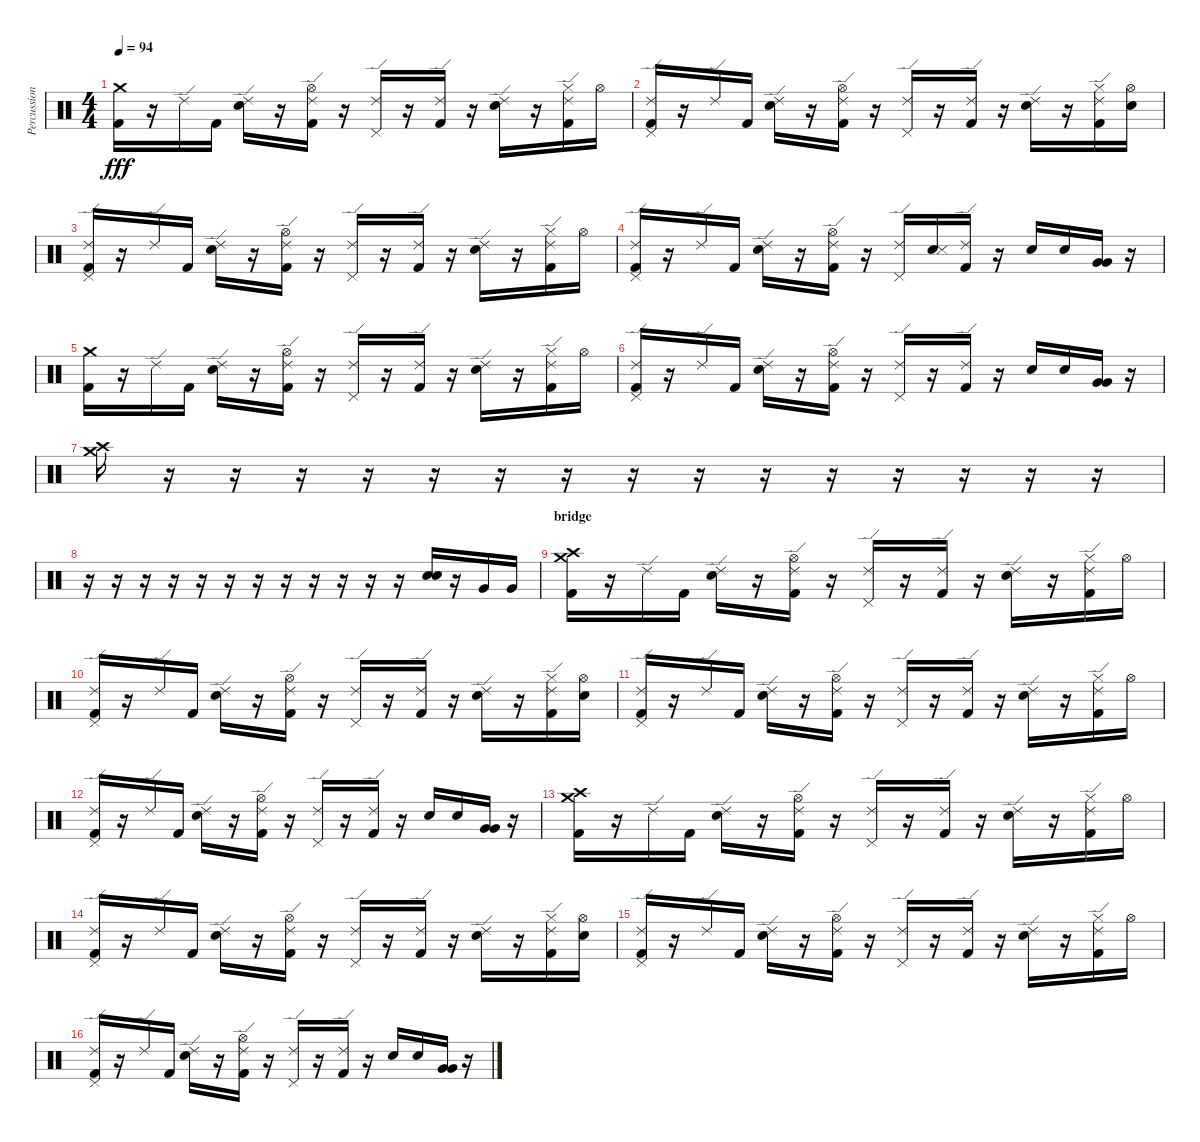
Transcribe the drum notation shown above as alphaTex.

\track ("Percussion" "Percussion") {instrument percussion}
\staff {score}
\articulation defaults
\ts (4 4)
\tempo 94
\clef neutral
\ks c
("Crash medium (hit)" "Kick (hit) 2").16{dy fff} r.16 "Ride (edge) 2".16 "Kick (hit) 2".16 ("Ride (edge) 2" "Electric Snare (hit)").16 r.16 ("Ride (edge) 2" "Hi-Hat (open)" "Kick (hit) 2").16 r.16 ("Ride (edge) 2" "Pedal Hi-Hat (hit)").16 r.16 ("Ride (edge) 2" "Kick (hit) 2").16 r.16 ("Ride (edge) 2" "Electric Snare (hit)").16 r.16 ("Ride (edge) 2" "Hi-Hat (closed)" "Kick (hit) 2").16 "Hi-Hat (open)".16 |
("Ride (edge) 2" "Pedal Hi-Hat (hit)" "Kick (hit) 2").16 r.16 "Ride (edge) 2".16 "Kick (hit) 2".16 ("Ride (edge) 2" "Electric Snare (hit)").16 r.16 ("Ride (edge) 2" "Hi-Hat (open)" "Kick (hit) 2").16 r.16 ("Ride (edge) 2" "Pedal Hi-Hat (hit)").16 r.16 ("Ride (edge) 2" "Kick (hit) 2").16 r.16 ("Ride (edge) 2" "Electric Snare (hit)").16 r.16 ("Ride (edge) 2" "Hi-Hat (closed)" "Kick (hit) 2").16 ("Hi-Hat (open)" "Electric Snare (hit)").16 |
("Ride (edge) 2" "Pedal Hi-Hat (hit)" "Kick (hit) 2").16 r.16 "Ride (edge) 2".16 "Kick (hit) 2".16 ("Ride (edge) 2" "Electric Snare (hit)").16 r.16 ("Ride (edge) 2" "Hi-Hat (open)" "Kick (hit) 2").16 r.16 ("Ride (edge) 2" "Pedal Hi-Hat (hit)").16 r.16 ("Ride (edge) 2" "Kick (hit) 2").16 r.16 ("Ride (edge) 2" "Electric Snare (hit)").16 r.16 ("Ride (edge) 2" "Hi-Hat (closed)" "Kick (hit) 2").16 "Hi-Hat (open)".16 |
("Ride (edge) 2" "Pedal Hi-Hat (hit)" "Kick (hit) 2").16 r.16 "Ride (edge) 2".16 "Kick (hit) 2".16 ("Ride (edge) 2" "Electric Snare (hit)").16 r.16 ("Ride (edge) 2" "Hi-Hat (open)" "Kick (hit) 2").16 r.16 ("Ride (edge) 2" "Pedal Hi-Hat (hit)").16 ("Electric Snare (hit)" "Snare (side stick) 3").16 ("Ride (edge) 2" "Kick (hit) 2").16 r.16 "Electric Snare (hit)".16 "Electric Snare (hit)".16 ("Very Low Tom (hit)" "Very Low Tom (hit)").16 r.16 |
("Crash medium (hit)" "Kick (hit) 2").16 r.16 "Ride (edge) 2".16 "Kick (hit) 2".16 ("Ride (edge) 2" "Electric Snare (hit)").16 r.16 ("Ride (edge) 2" "Hi-Hat (open)" "Kick (hit) 2").16 r.16 ("Ride (edge) 2" "Pedal Hi-Hat (hit)").16 r.16 ("Ride (edge) 2" "Kick (hit) 2").16 r.16 ("Ride (edge) 2" "Electric Snare (hit)").16 r.16 ("Ride (edge) 2" "Hi-Hat (closed)" "Kick (hit) 2").16 "Hi-Hat (open)".16 |
("Ride (edge) 2" "Pedal Hi-Hat (hit)" "Kick (hit) 2").16 r.16 "Ride (edge) 2".16 "Kick (hit) 2".16 ("Ride (edge) 2" "Electric Snare (hit)").16 r.16 ("Ride (edge) 2" "Hi-Hat (open)" "Kick (hit) 2").16 r.16 ("Ride (edge) 2" "Pedal Hi-Hat (hit)").16 r.16 ("Ride (edge) 2" "Kick (hit) 2").16 r.16 "Electric Snare (hit)".16 "Electric Snare (hit)".16 ("Very Low Tom (hit)" "Very Low Tom (hit)").16 r.16 |
("Crash high (hit)" "Crash medium (hit)").16 r.16 r.16 r.16 r.16 r.16 r.16 r.16 r.16 r.16 r.16 r.16 r.16 r.16 r.16 r.16 |
r.16 r.16 r.16 r.16 r.16 r.16 r.16 r.16 r.16 r.16 r.16 r.16 ("Electric Snare (hit)" "Electric Snare (hit)").16 r.16 "Very Low Tom (hit)".16 "Very Low Tom (hit)".16 |
\section ("" "bridge")
("Crash medium (hit)" "Crash high (hit)" "Kick (hit) 2").16 r.16 "Ride (edge) 2".16 "Kick (hit) 2".16 ("Ride (edge) 2" "Electric Snare (hit)").16 r.16 ("Ride (edge) 2" "Hi-Hat (open)" "Kick (hit) 2").16 r.16 ("Ride (edge) 2" "Pedal Hi-Hat (hit)").16 r.16 ("Ride (edge) 2" "Kick (hit) 2").16 r.16 ("Ride (edge) 2" "Electric Snare (hit)").16 r.16 ("Ride (edge) 2" "Hi-Hat (closed)" "Kick (hit) 2").16 "Hi-Hat (open)".16 |
("Ride (edge) 2" "Pedal Hi-Hat (hit)" "Kick (hit) 2").16 r.16 "Ride (edge) 2".16 "Kick (hit) 2".16 ("Ride (edge) 2" "Electric Snare (hit)").16 r.16 ("Ride (edge) 2" "Hi-Hat (open)" "Kick (hit) 2").16 r.16 ("Ride (edge) 2" "Pedal Hi-Hat (hit)").16 r.16 ("Ride (edge) 2" "Kick (hit) 2").16 r.16 ("Ride (edge) 2" "Electric Snare (hit)").16 r.16 ("Ride (edge) 2" "Hi-Hat (closed)" "Kick (hit) 2").16 ("Hi-Hat (open)" "Electric Snare (hit)").16 |
("Ride (edge) 2" "Pedal Hi-Hat (hit)" "Kick (hit) 2").16 r.16 "Ride (edge) 2".16 "Kick (hit) 2".16 ("Ride (edge) 2" "Electric Snare (hit)").16 r.16 ("Ride (edge) 2" "Hi-Hat (open)" "Kick (hit) 2").16 r.16 ("Ride (edge) 2" "Pedal Hi-Hat (hit)").16 r.16 ("Ride (edge) 2" "Kick (hit) 2").16 r.16 ("Ride (edge) 2" "Electric Snare (hit)").16 r.16 ("Ride (edge) 2" "Hi-Hat (closed)" "Kick (hit) 2").16 "Hi-Hat (open)".16 |
("Ride (edge) 2" "Pedal Hi-Hat (hit)" "Kick (hit) 2").16 r.16 "Ride (edge) 2".16 "Kick (hit) 2".16 ("Ride (edge) 2" "Electric Snare (hit)").16 r.16 ("Ride (edge) 2" "Hi-Hat (open)" "Kick (hit) 2").16 r.16 ("Ride (edge) 2" "Pedal Hi-Hat (hit)").16 r.16 ("Ride (edge) 2" "Kick (hit) 2").16 r.16 "Electric Snare (hit)".16 "Electric Snare (hit)".16 ("Very Low Tom (hit)" "Very Low Tom (hit)").16 r.16 |
("Crash medium (hit)" "Crash high (hit)" "Kick (hit) 2").16 r.16 "Ride (edge) 2".16 "Kick (hit) 2".16 ("Ride (edge) 2" "Electric Snare (hit)").16 r.16 ("Ride (edge) 2" "Hi-Hat (open)" "Kick (hit) 2").16 r.16 ("Ride (edge) 2" "Pedal Hi-Hat (hit)").16 r.16 ("Ride (edge) 2" "Kick (hit) 2").16 r.16 ("Ride (edge) 2" "Electric Snare (hit)").16 r.16 ("Ride (edge) 2" "Hi-Hat (closed)" "Kick (hit) 2").16 "Hi-Hat (open)".16 |
("Ride (edge) 2" "Pedal Hi-Hat (hit)" "Kick (hit) 2").16 r.16 "Ride (edge) 2".16 "Kick (hit) 2".16 ("Ride (edge) 2" "Electric Snare (hit)").16 r.16 ("Ride (edge) 2" "Hi-Hat (open)" "Kick (hit) 2").16 r.16 ("Ride (edge) 2" "Pedal Hi-Hat (hit)").16 r.16 ("Ride (edge) 2" "Kick (hit) 2").16 r.16 ("Ride (edge) 2" "Electric Snare (hit)").16 r.16 ("Ride (edge) 2" "Hi-Hat (closed)" "Kick (hit) 2").16 ("Hi-Hat (open)" "Electric Snare (hit)").16 |
("Ride (edge) 2" "Pedal Hi-Hat (hit)" "Kick (hit) 2").16 r.16 "Ride (edge) 2".16 "Kick (hit) 2".16 ("Ride (edge) 2" "Electric Snare (hit)").16 r.16 ("Ride (edge) 2" "Hi-Hat (open)" "Kick (hit) 2").16 r.16 ("Ride (edge) 2" "Pedal Hi-Hat (hit)").16 r.16 ("Ride (edge) 2" "Kick (hit) 2").16 r.16 ("Ride (edge) 2" "Electric Snare (hit)").16 r.16 ("Ride (edge) 2" "Hi-Hat (closed)" "Kick (hit) 2").16 "Hi-Hat (open)".16 |
("Ride (edge) 2" "Pedal Hi-Hat (hit)" "Kick (hit) 2").16 r.16 "Ride (edge) 2".16 "Kick (hit) 2".16 ("Ride (edge) 2" "Electric Snare (hit)").16 r.16 ("Ride (edge) 2" "Hi-Hat (open)" "Kick (hit) 2").16 r.16 ("Ride (edge) 2" "Pedal Hi-Hat (hit)").16 r.16 ("Ride (edge) 2" "Kick (hit) 2").16 r.16 "Electric Snare (hit)".16 "Electric Snare (hit)".16 ("Very Low Tom (hit)" "Very Low Tom (hit)").16 r.16
